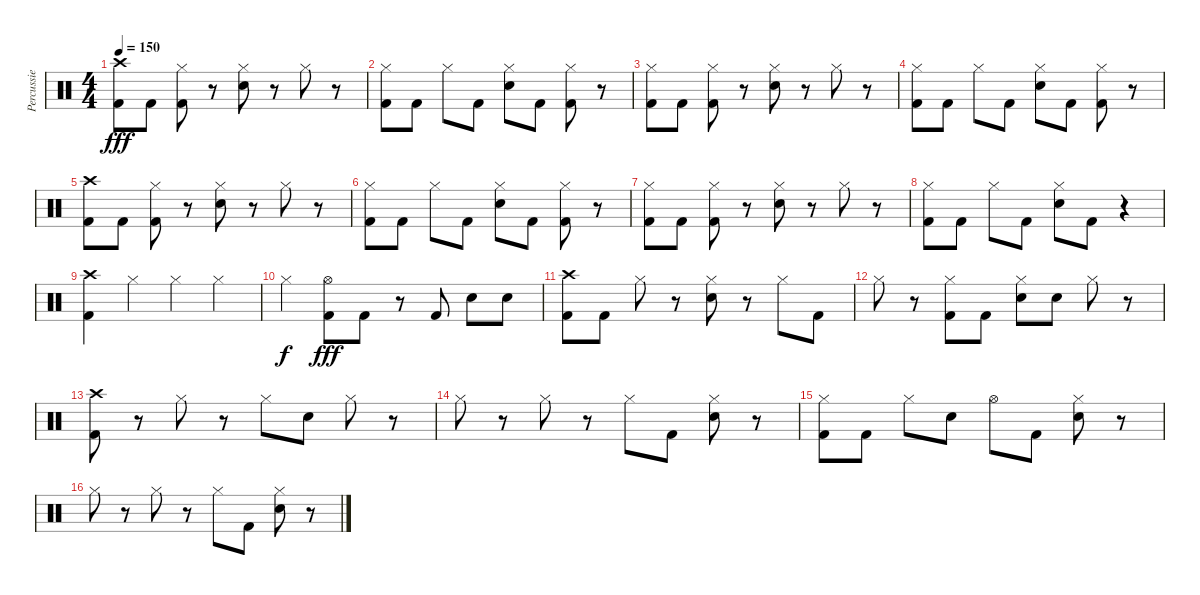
\track ("Percussie" "Percussie") {instrument percussion}
\staff {score}
\articulation defaults
\ts (4 4)
\tempo 150
\clef neutral
\ks c
("Kick (hit) 2" "Crash high (hit)").8{dy fff} "Kick (hit) 2".8 ("Kick (hit) 2" "Hi-Hat (closed)").8 r.8 ("Electric Snare (hit)" "Hi-Hat (closed)").8 r.8 "Hi-Hat (closed)".8 r.8 |
("Kick (hit) 2" "Hi-Hat (closed)").8 "Kick (hit) 2".8 "Hi-Hat (closed)".8 "Kick (hit) 2".8 ("Electric Snare (hit)" "Hi-Hat (closed)").8 "Kick (hit) 2".8 ("Kick (hit) 2" "Hi-Hat (closed)").8 r.8 |
("Kick (hit) 2" "Hi-Hat (closed)").8 "Kick (hit) 2".8 ("Kick (hit) 2" "Hi-Hat (closed)").8 r.8 ("Electric Snare (hit)" "Hi-Hat (closed)").8 r.8 "Hi-Hat (closed)".8 r.8 |
("Kick (hit) 2" "Hi-Hat (closed)").8 "Kick (hit) 2".8 "Hi-Hat (closed)".8 "Kick (hit) 2".8 ("Electric Snare (hit)" "Hi-Hat (closed)").8 "Kick (hit) 2".8 ("Kick (hit) 2" "Hi-Hat (closed)").8 r.8 |
("Kick (hit) 2" "Crash high (hit)").8 "Kick (hit) 2".8 ("Kick (hit) 2" "Hi-Hat (closed)").8 r.8 ("Electric Snare (hit)" "Hi-Hat (closed)").8 r.8 "Hi-Hat (closed)".8 r.8 |
("Kick (hit) 2" "Hi-Hat (closed)").8 "Kick (hit) 2".8 "Hi-Hat (closed)".8 "Kick (hit) 2".8 ("Electric Snare (hit)" "Hi-Hat (closed)").8 "Kick (hit) 2".8 ("Kick (hit) 2" "Hi-Hat (closed)").8 r.8 |
("Kick (hit) 2" "Hi-Hat (closed)").8 "Kick (hit) 2".8 ("Kick (hit) 2" "Hi-Hat (closed)").8 r.8 ("Electric Snare (hit)" "Hi-Hat (closed)").8 r.8 "Hi-Hat (closed)".8 r.8 |
("Kick (hit) 2" "Hi-Hat (closed)").8 "Kick (hit) 2".8 "Hi-Hat (closed)".8 "Kick (hit) 2".8 ("Electric Snare (hit)" "Hi-Hat (closed)").8 "Kick (hit) 2".8 r.4 |
("Kick (hit) 2" "Crash high (hit)").4 "Hi-Hat (closed)".4 "Hi-Hat (closed)".4 "Hi-Hat (closed)".4 |
"Hi-Hat (closed)".4{dy f} ("Kick (hit) 2" "Hi-Hat (open)").8{dy fff} "Kick (hit) 2".8 r.8 "Kick (hit) 2".8 "Electric Snare (hit)".8 "Electric Snare (hit)".8 |
("Kick (hit) 2" "Crash high (hit)").8 "Kick (hit) 2".8 "Hi-Hat (closed)".8 r.8 ("Electric Snare (hit)" "Hi-Hat (closed)").8 r.8 "Hi-Hat (closed)".8 "Kick (hit) 2".8 |
"Hi-Hat (closed)".8 r.8 ("Kick (hit) 2" "Hi-Hat (closed)").8 "Kick (hit) 2".8 ("Electric Snare (hit)" "Hi-Hat (closed)").8 "Electric Snare (hit)".8 "Hi-Hat (closed)".8 r.8 |
("Kick (hit) 2" "Crash high (hit)").8 r.8 "Hi-Hat (closed)".8 r.8 "Hi-Hat (closed)".8 "Electric Snare (hit)".8 "Hi-Hat (closed)".8 r.8 |
"Hi-Hat (closed)".8 r.8 "Hi-Hat (closed)".8 r.8 "Hi-Hat (closed)".8 "Kick (hit) 2".8 ("Electric Snare (hit)" "Hi-Hat (closed)").8 r.8 |
("Kick (hit) 2" "Hi-Hat (closed)").8 "Kick (hit) 2".8 "Hi-Hat (closed)".8 "Electric Snare (hit)".8 "Hi-Hat (open)".8 "Kick (hit) 2".8 ("Electric Snare (hit)" "Hi-Hat (closed)").8 r.8 |
"Hi-Hat (closed)".8 r.8 "Hi-Hat (closed)".8 r.8 "Hi-Hat (closed)".8 "Kick (hit) 2".8 ("Electric Snare (hit)" "Hi-Hat (closed)").8 r.8
